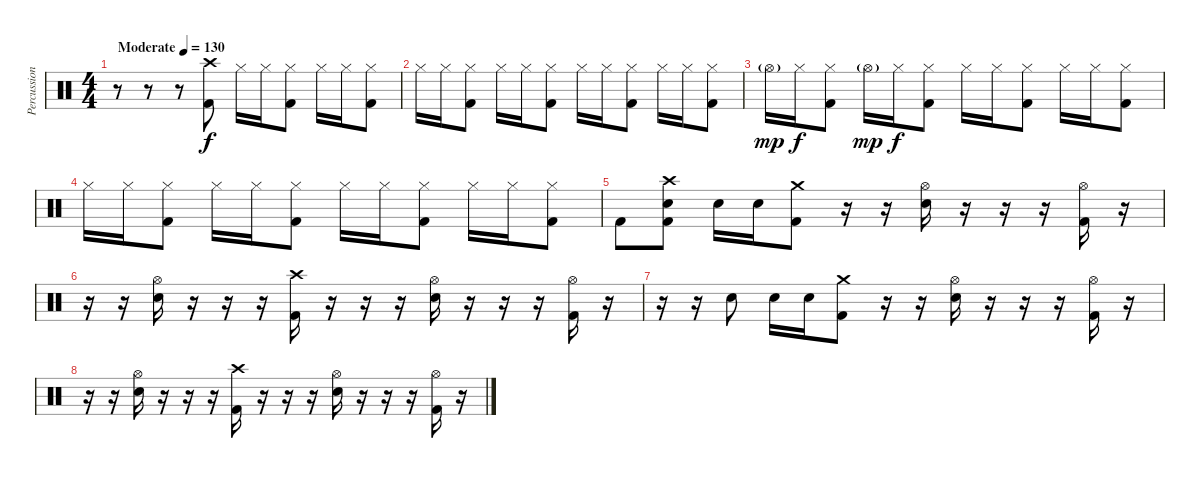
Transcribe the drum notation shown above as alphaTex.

\track ("Percussion" "Percussion") {instrument percussion}
\staff {score}
\articulation defaults
\ts (4 4)
\tempo (130 "Moderate")
\clef neutral
\ks c
r.8{dy f} r.8 r.8 ("Crash high (hit)" "Kick (hit) 2").8 "Hi-Hat (closed)".16 "Hi-Hat (closed)".16 ("Hi-Hat (closed)" "Kick (hit) 2").8 "Hi-Hat (closed)".16 "Hi-Hat (closed)".16 ("Hi-Hat (closed)" "Kick (hit) 2").8 |
"Hi-Hat (closed)".16 "Hi-Hat (closed)".16 ("Hi-Hat (closed)" "Kick (hit) 2").8 "Hi-Hat (closed)".16 "Hi-Hat (closed)".16 ("Hi-Hat (closed)" "Kick (hit) 2").8 "Hi-Hat (closed)".16 "Hi-Hat (closed)".16 ("Hi-Hat (closed)" "Kick (hit) 2").8 "Hi-Hat (closed)".16 "Hi-Hat (closed)".16 ("Hi-Hat (closed)" "Kick (hit) 2").8 |
"Hi-Hat (open)"{g}.16{dy mp} "Hi-Hat (closed)".16{dy f} ("Hi-Hat (closed)" "Kick (hit) 2").8 "Hi-Hat (open)"{g}.16{dy mp} "Hi-Hat (closed)".16{dy f} ("Hi-Hat (closed)" "Kick (hit) 2").8 "Hi-Hat (closed)".16 "Hi-Hat (closed)".16 ("Hi-Hat (closed)" "Kick (hit) 2").8 "Hi-Hat (closed)".16 "Hi-Hat (closed)".16 ("Hi-Hat (closed)" "Kick (hit) 2").8 |
"Hi-Hat (closed)".16 "Hi-Hat (closed)".16 ("Hi-Hat (closed)" "Kick (hit) 2").8 "Hi-Hat (closed)".16 "Hi-Hat (closed)".16 ("Hi-Hat (closed)" "Kick (hit) 2").8 "Hi-Hat (closed)".16 "Hi-Hat (closed)".16 ("Hi-Hat (closed)" "Kick (hit) 2").8 "Hi-Hat (closed)".16 "Hi-Hat (closed)".16 ("Hi-Hat (closed)" "Kick (hit) 2").8 |
"Kick (hit) 2".8 ("Crash high (hit)" "Snare (hit) 2" "Kick (hit) 2").8 "Snare (hit) 2".16 "Snare (hit) 2".16 ("Crash medium (hit)" "Kick (hit) 2").8 r.16 r.16 ("Hi-Hat (open)" "Snare (hit) 2").16 r.16 r.16 r.16 ("Hi-Hat (open)" "Kick (hit) 2").16 r.16 |
r.16 r.16 ("Hi-Hat (open)" "Snare (hit) 2").16 r.16 r.16 r.16 ("Crash high (hit)" "Kick (hit) 2").16 r.16 r.16 r.16 ("Hi-Hat (open)" "Snare (hit) 2").16 r.16 r.16 r.16 ("Hi-Hat (open)" "Kick (hit) 2").16 r.16 |
r.16 r.16 "Snare (hit) 2".8 "Snare (hit) 2".16 "Snare (hit) 2".16 ("Crash medium (hit)" "Kick (hit) 2").8 r.16 r.16 ("Hi-Hat (open)" "Snare (hit) 2").16 r.16 r.16 r.16 ("Hi-Hat (open)" "Kick (hit) 2").16 r.16 |
r.16 r.16 ("Hi-Hat (open)" "Snare (hit) 2").16 r.16 r.16 r.16 ("Crash high (hit)" "Kick (hit) 2").16 r.16 r.16 r.16 ("Hi-Hat (open)" "Snare (hit) 2").16 r.16 r.16 r.16 ("Hi-Hat (open)" "Kick (hit) 2").16 r.16
